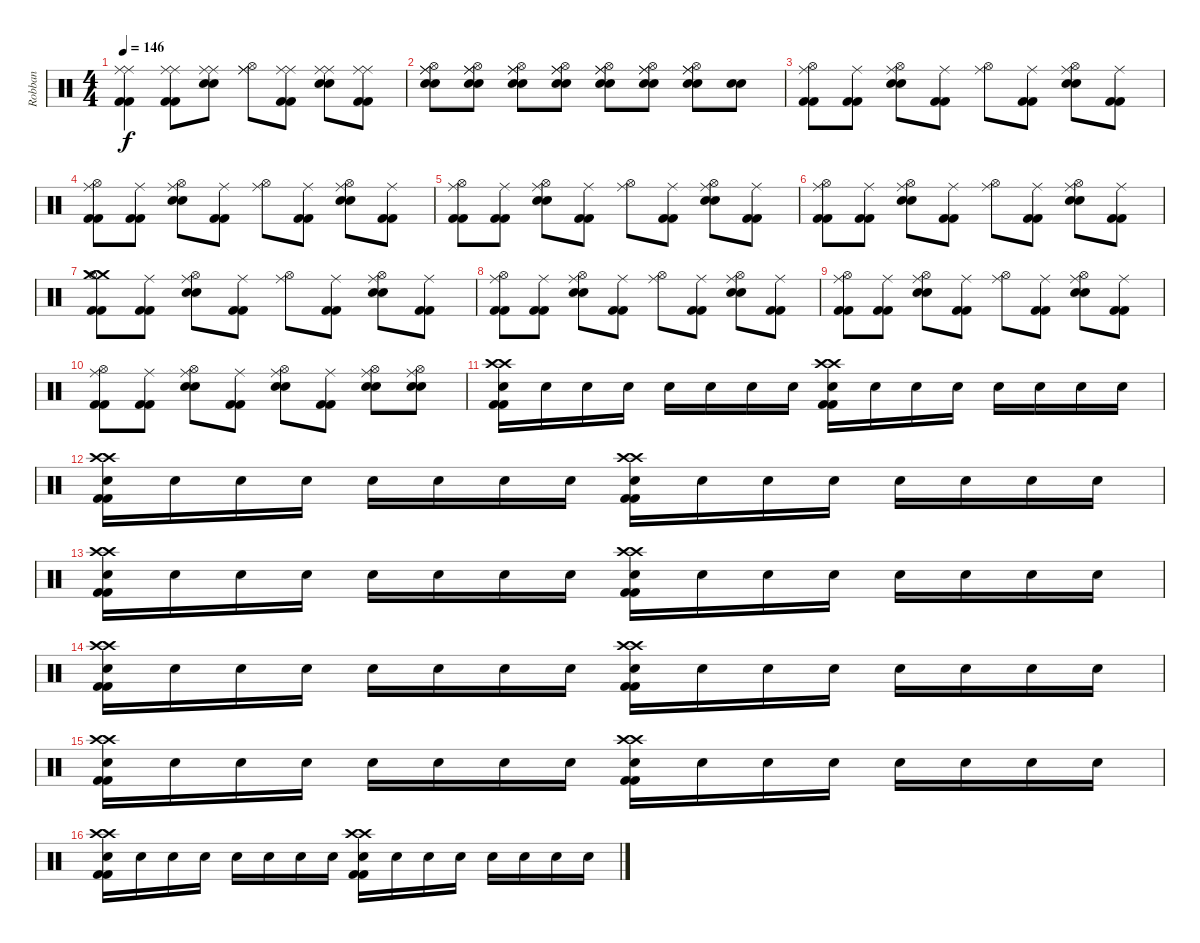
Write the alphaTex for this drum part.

\track ("Robban" "Robban") {instrument percussion}
\staff {score}
\articulation defaults
\ts (4 4)
\tempo 146
\clef neutral
\ks c
("Ride (middle)" "Ride (middle)" "Kick (hit) 2" "Kick (hit) 2").4{dy f} ("Ride (middle)" "Ride (middle)" "Kick (hit) 2" "Kick (hit) 2").8 ("Ride (middle)" "Ride (middle)" "Electric Snare (hit)" "Electric Snare (hit)").8 ("Ride (middle)" "Ride (middle)" "Hi-Hat (open)").8 ("Ride (middle)" "Ride (middle)" "Kick (hit) 2" "Kick (hit) 2").8 ("Ride (middle)" "Ride (middle)" "Electric Snare (hit)" "Electric Snare (hit)").8 ("Ride (middle)" "Ride (middle)" "Kick (hit) 2" "Kick (hit) 2").8 |
("Ride (middle)" "Ride (middle)" "Hi-Hat (open)" "Electric Snare (hit)" "Electric Snare (hit)").8 ("Ride (middle)" "Ride (middle)" "Hi-Hat (open)" "Electric Snare (hit)" "Electric Snare (hit)").8 ("Ride (middle)" "Ride (middle)" "Hi-Hat (open)" "Electric Snare (hit)" "Electric Snare (hit)").8 ("Ride (middle)" "Ride (middle)" "Hi-Hat (open)" "Electric Snare (hit)" "Electric Snare (hit)").8 ("Ride (middle)" "Ride (middle)" "Hi-Hat (open)" "Electric Snare (hit)" "Electric Snare (hit)").8 ("Ride (middle)" "Ride (middle)" "Hi-Hat (open)" "Electric Snare (hit)" "Electric Snare (hit)").8 ("Ride (middle)" "Ride (middle)" "Hi-Hat (open)" "Electric Snare (hit)" "Electric Snare (hit)").8 ("Electric Snare (hit)" "Electric Snare (hit)").8 |
("Ride (middle)" "Hi-Hat (open)" "Kick (hit) 2" "Kick (hit) 2").8 ("Ride (middle)" "Kick (hit) 2" "Kick (hit) 2").8 ("Ride (middle)" "Hi-Hat (open)" "Electric Snare (hit)" "Electric Snare (hit)").8 ("Ride (middle)" "Kick (hit) 2" "Kick (hit) 2").8 ("Ride (middle)" "Hi-Hat (open)").8 ("Ride (middle)" "Kick (hit) 2" "Kick (hit) 2").8 ("Ride (middle)" "Hi-Hat (open)" "Electric Snare (hit)" "Electric Snare (hit)").8 ("Ride (middle)" "Kick (hit) 2" "Kick (hit) 2").8 |
("Ride (middle)" "Hi-Hat (open)" "Kick (hit) 2" "Kick (hit) 2").8 ("Ride (middle)" "Kick (hit) 2" "Kick (hit) 2").8 ("Ride (middle)" "Hi-Hat (open)" "Electric Snare (hit)" "Electric Snare (hit)").8 ("Ride (middle)" "Kick (hit) 2" "Kick (hit) 2").8 ("Ride (middle)" "Hi-Hat (open)").8 ("Ride (middle)" "Kick (hit) 2" "Kick (hit) 2").8 ("Ride (middle)" "Hi-Hat (open)" "Electric Snare (hit)" "Electric Snare (hit)").8 ("Ride (middle)" "Kick (hit) 2" "Kick (hit) 2").8 |
("Ride (middle)" "Hi-Hat (open)" "Kick (hit) 2" "Kick (hit) 2").8 ("Ride (middle)" "Kick (hit) 2" "Kick (hit) 2").8 ("Ride (middle)" "Hi-Hat (open)" "Electric Snare (hit)" "Electric Snare (hit)").8 ("Ride (middle)" "Kick (hit) 2" "Kick (hit) 2").8 ("Ride (middle)" "Hi-Hat (open)").8 ("Ride (middle)" "Kick (hit) 2" "Kick (hit) 2").8 ("Ride (middle)" "Hi-Hat (open)" "Electric Snare (hit)" "Electric Snare (hit)").8 ("Ride (middle)" "Kick (hit) 2" "Kick (hit) 2").8 |
("Ride (middle)" "Hi-Hat (open)" "Kick (hit) 2" "Kick (hit) 2").8 ("Ride (middle)" "Kick (hit) 2" "Kick (hit) 2").8 ("Ride (middle)" "Hi-Hat (open)" "Electric Snare (hit)" "Electric Snare (hit)").8 ("Ride (middle)" "Kick (hit) 2" "Kick (hit) 2").8 ("Ride (middle)" "Hi-Hat (open)").8 ("Ride (middle)" "Kick (hit) 2" "Kick (hit) 2").8 ("Ride (middle)" "Hi-Hat (open)" "Electric Snare (hit)" "Electric Snare (hit)").8 ("Ride (middle)" "Kick (hit) 2" "Kick (hit) 2").8 |
("Crash medium (hit)" "Crash medium (hit)" "Hi-Hat (open)" "Kick (hit) 2" "Kick (hit) 2").8 ("Ride (middle)" "Kick (hit) 2" "Kick (hit) 2").8 ("Ride (middle)" "Hi-Hat (open)" "Electric Snare (hit)" "Electric Snare (hit)").8 ("Ride (middle)" "Kick (hit) 2" "Kick (hit) 2").8 ("Ride (middle)" "Hi-Hat (open)").8 ("Ride (middle)" "Kick (hit) 2" "Kick (hit) 2").8 ("Ride (middle)" "Hi-Hat (open)" "Electric Snare (hit)" "Electric Snare (hit)").8 ("Ride (middle)" "Kick (hit) 2" "Kick (hit) 2").8 |
("Ride (middle)" "Hi-Hat (open)" "Kick (hit) 2" "Kick (hit) 2").8 ("Ride (middle)" "Kick (hit) 2" "Kick (hit) 2").8 ("Ride (middle)" "Hi-Hat (open)" "Electric Snare (hit)" "Electric Snare (hit)").8 ("Ride (middle)" "Kick (hit) 2" "Kick (hit) 2").8 ("Ride (middle)" "Hi-Hat (open)").8 ("Ride (middle)" "Kick (hit) 2" "Kick (hit) 2").8 ("Ride (middle)" "Hi-Hat (open)" "Electric Snare (hit)" "Electric Snare (hit)").8 ("Ride (middle)" "Kick (hit) 2" "Kick (hit) 2").8 |
("Ride (middle)" "Hi-Hat (open)" "Kick (hit) 2" "Kick (hit) 2").8 ("Ride (middle)" "Kick (hit) 2" "Kick (hit) 2").8 ("Ride (middle)" "Hi-Hat (open)" "Electric Snare (hit)" "Electric Snare (hit)").8 ("Ride (middle)" "Kick (hit) 2" "Kick (hit) 2").8 ("Ride (middle)" "Hi-Hat (open)").8 ("Ride (middle)" "Kick (hit) 2" "Kick (hit) 2").8 ("Ride (middle)" "Hi-Hat (open)" "Electric Snare (hit)" "Electric Snare (hit)").8 ("Ride (middle)" "Kick (hit) 2" "Kick (hit) 2").8 |
("Ride (middle)" "Hi-Hat (open)" "Kick (hit) 2" "Kick (hit) 2").8 ("Ride (middle)" "Kick (hit) 2" "Kick (hit) 2").8 ("Ride (middle)" "Hi-Hat (open)" "Electric Snare (hit)" "Electric Snare (hit)").8 ("Ride (middle)" "Kick (hit) 2" "Kick (hit) 2").8 ("Ride (middle)" "Hi-Hat (open)" "Electric Snare (hit)" "Electric Snare (hit)").8 ("Ride (middle)" "Kick (hit) 2" "Kick (hit) 2").8 ("Ride (middle)" "Hi-Hat (open)" "Electric Snare (hit)" "Electric Snare (hit)").8 ("Ride (middle)" "Hi-Hat (open)" "Electric Snare (hit)" "Electric Snare (hit)").8 |
("Crash high (hit)" "Crash high (hit)" "Electric Snare (hit)" "Kick (hit) 2" "Kick (hit) 2").16 "Electric Snare (hit)".16 "Electric Snare (hit)".16 "Electric Snare (hit)".16 "Electric Snare (hit)".16 "Electric Snare (hit)".16 "Electric Snare (hit)".16 "Electric Snare (hit)".16 ("Crash high (hit)" "Crash high (hit)" "Electric Snare (hit)" "Kick (hit) 2" "Kick (hit) 2").16 "Electric Snare (hit)".16 "Electric Snare (hit)".16 "Electric Snare (hit)".16 "Electric Snare (hit)".16 "Electric Snare (hit)".16 "Electric Snare (hit)".16 "Electric Snare (hit)".16 |
("Crash high (hit)" "Crash high (hit)" "Electric Snare (hit)" "Kick (hit) 2" "Kick (hit) 2").16 "Electric Snare (hit)".16 "Electric Snare (hit)".16 "Electric Snare (hit)".16 "Electric Snare (hit)".16 "Electric Snare (hit)".16 "Electric Snare (hit)".16 "Electric Snare (hit)".16 ("Crash high (hit)" "Crash high (hit)" "Electric Snare (hit)" "Kick (hit) 2" "Kick (hit) 2").16 "Electric Snare (hit)".16 "Electric Snare (hit)".16 "Electric Snare (hit)".16 "Electric Snare (hit)".16 "Electric Snare (hit)".16 "Electric Snare (hit)".16 "Electric Snare (hit)".16 |
("Crash high (hit)" "Crash high (hit)" "Electric Snare (hit)" "Kick (hit) 2" "Kick (hit) 2").16 "Electric Snare (hit)".16 "Electric Snare (hit)".16 "Electric Snare (hit)".16 "Electric Snare (hit)".16 "Electric Snare (hit)".16 "Electric Snare (hit)".16 "Electric Snare (hit)".16 ("Crash high (hit)" "Crash high (hit)" "Electric Snare (hit)" "Kick (hit) 2" "Kick (hit) 2").16 "Electric Snare (hit)".16 "Electric Snare (hit)".16 "Electric Snare (hit)".16 "Electric Snare (hit)".16 "Electric Snare (hit)".16 "Electric Snare (hit)".16 "Electric Snare (hit)".16 |
("Crash high (hit)" "Crash high (hit)" "Electric Snare (hit)" "Kick (hit) 2" "Kick (hit) 2").16 "Electric Snare (hit)".16 "Electric Snare (hit)".16 "Electric Snare (hit)".16 "Electric Snare (hit)".16 "Electric Snare (hit)".16 "Electric Snare (hit)".16 "Electric Snare (hit)".16 ("Crash high (hit)" "Crash high (hit)" "Electric Snare (hit)" "Kick (hit) 2" "Kick (hit) 2").16 "Electric Snare (hit)".16 "Electric Snare (hit)".16 "Electric Snare (hit)".16 "Electric Snare (hit)".16 "Electric Snare (hit)".16 "Electric Snare (hit)".16 "Electric Snare (hit)".16 |
("Crash high (hit)" "Crash high (hit)" "Electric Snare (hit)" "Kick (hit) 2" "Kick (hit) 2").16 "Electric Snare (hit)".16 "Electric Snare (hit)".16 "Electric Snare (hit)".16 "Electric Snare (hit)".16 "Electric Snare (hit)".16 "Electric Snare (hit)".16 "Electric Snare (hit)".16 ("Crash high (hit)" "Crash high (hit)" "Electric Snare (hit)" "Kick (hit) 2" "Kick (hit) 2").16 "Electric Snare (hit)".16 "Electric Snare (hit)".16 "Electric Snare (hit)".16 "Electric Snare (hit)".16 "Electric Snare (hit)".16 "Electric Snare (hit)".16 "Electric Snare (hit)".16 |
("Crash high (hit)" "Crash high (hit)" "Electric Snare (hit)" "Kick (hit) 2" "Kick (hit) 2").16 "Electric Snare (hit)".16 "Electric Snare (hit)".16 "Electric Snare (hit)".16 "Electric Snare (hit)".16 "Electric Snare (hit)".16 "Electric Snare (hit)".16 "Electric Snare (hit)".16 ("Crash high (hit)" "Crash high (hit)" "Electric Snare (hit)" "Kick (hit) 2" "Kick (hit) 2").16 "Electric Snare (hit)".16 "Electric Snare (hit)".16 "Electric Snare (hit)".16 "Electric Snare (hit)".16 "Electric Snare (hit)".16 "Electric Snare (hit)".16 "Electric Snare (hit)".16
